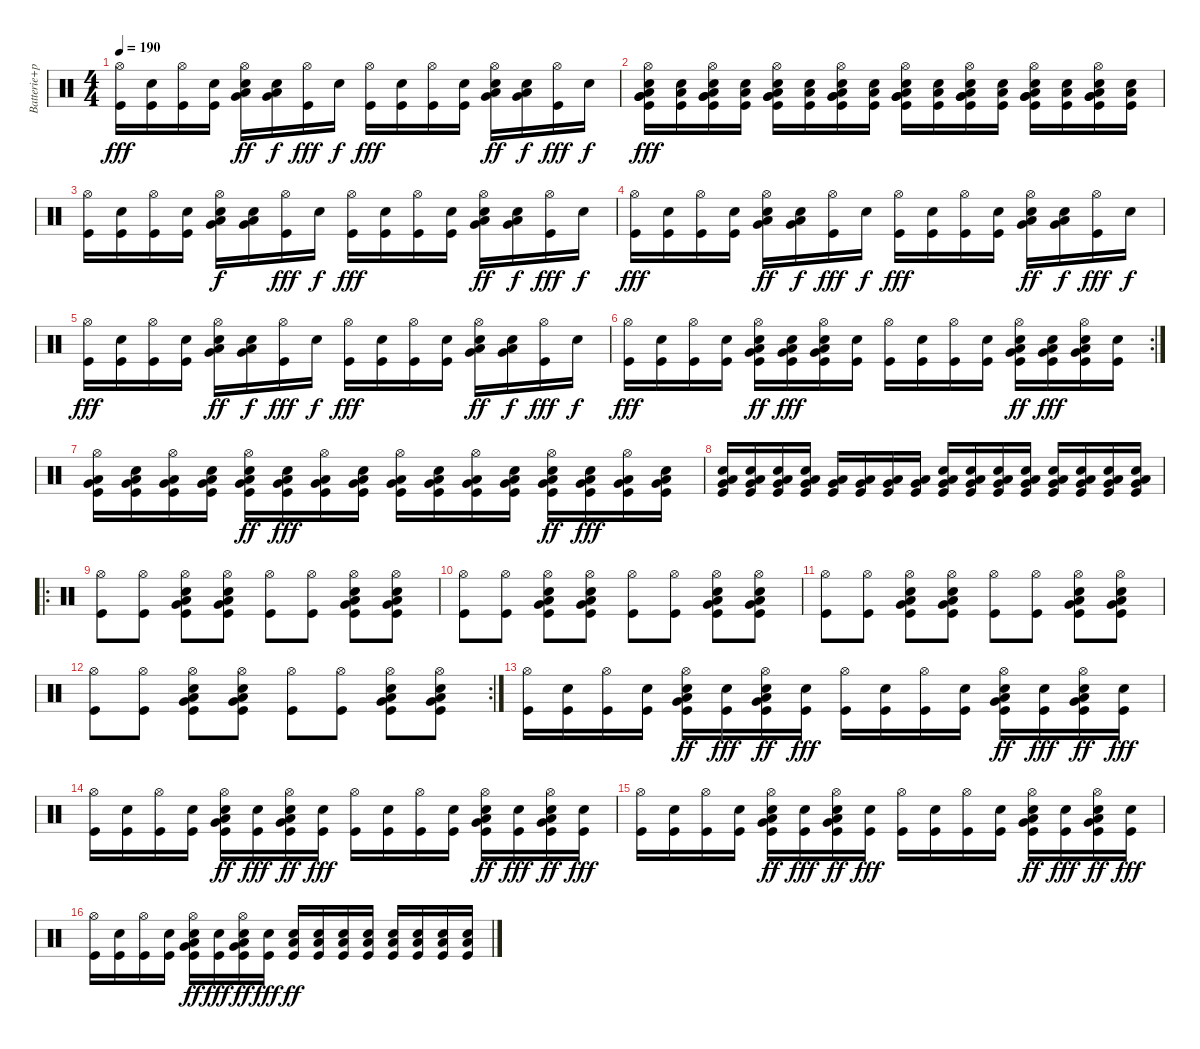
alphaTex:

\track ("Batterie+percussions" "Batterie+p") {instrument percussion}
\staff {score}
\articulation defaults
\ts (4 4)
\tempo 190
\clef neutral
\ks c
("Hi-Hat (open)" "Kick (hit)").16{dy fff} ("Snare (hit)" "Kick (hit)").16 ("Hi-Hat (open)" "Kick (hit)").16 ("Snare (hit)" "Kick (hit)").16 ("Hi-Hat (open)" "Electric Snare (hit)" "Low Floor Tom (hit)" "Very Low Tom (hit)").16{dy ff} ("Snare (hit)" "Low Floor Tom (hit)" "Very Low Tom (hit)").16{dy f} ("Hi-Hat (open)" "Kick (hit)").16{dy fff} "Snare (hit)".16{dy f} ("Hi-Hat (open)" "Kick (hit)").16{dy fff} ("Snare (hit)" "Kick (hit)").16 ("Hi-Hat (open)" "Kick (hit)").16 ("Snare (hit)" "Kick (hit)").16 ("Hi-Hat (open)" "Electric Snare (hit)" "Low Floor Tom (hit)" "Very Low Tom (hit)").16{dy ff} ("Snare (hit)" "Low Floor Tom (hit)" "Very Low Tom (hit)").16{dy f} ("Hi-Hat (open)" "Kick (hit)").16{dy fff} "Snare (hit)".16{dy f} |
("Hi-Hat (open)" "Kick (hit)" "Electric Snare (hit)" "Very Low Tom (hit)" "Low Floor Tom (hit)" "Very Low Tom (hit)").16{dy fff} ("Snare (hit)" "Kick (hit)" "Low Floor Tom (hit)").16 ("Hi-Hat (open)" "Kick (hit)" "Electric Snare (hit)" "Very Low Tom (hit)" "Low Floor Tom (hit)" "Very Low Tom (hit)").16 ("Snare (hit)" "Kick (hit)" "Low Floor Tom (hit)").16 ("Hi-Hat (open)" "Kick (hit)" "Electric Snare (hit)" "Very Low Tom (hit)" "Low Floor Tom (hit)" "Very Low Tom (hit)").16 ("Snare (hit)" "Kick (hit)" "Low Floor Tom (hit)").16 ("Hi-Hat (open)" "Kick (hit)" "Electric Snare (hit)" "Very Low Tom (hit)" "Low Floor Tom (hit)" "Very Low Tom (hit)").16 ("Snare (hit)" "Kick (hit)" "Low Floor Tom (hit)").16 ("Hi-Hat (open)" "Kick (hit)" "Electric Snare (hit)" "Very Low Tom (hit)" "Low Floor Tom (hit)" "Very Low Tom (hit)").16 ("Snare (hit)" "Kick (hit)" "Low Floor Tom (hit)").16 ("Hi-Hat (open)" "Kick (hit)" "Electric Snare (hit)" "Very Low Tom (hit)" "Low Floor Tom (hit)" "Very Low Tom (hit)").16 ("Snare (hit)" "Kick (hit)" "Low Floor Tom (hit)").16 ("Hi-Hat (open)" "Kick (hit)" "Electric Snare (hit)" "Very Low Tom (hit)" "Low Floor Tom (hit)" "Very Low Tom (hit)").16 ("Snare (hit)" "Kick (hit)" "Low Floor Tom (hit)").16 ("Hi-Hat (open)" "Kick (hit)" "Electric Snare (hit)" "Very Low Tom (hit)" "Low Floor Tom (hit)" "Very Low Tom (hit)").16 ("Snare (hit)" "Kick (hit)" "Low Floor Tom (hit)").16 |
("Hi-Hat (open)" "Kick (hit)").16 ("Snare (hit)" "Kick (hit)").16 ("Hi-Hat (open)" "Kick (hit)").16 ("Snare (hit)" "Kick (hit)").16 ("Hi-Hat (open)" "Electric Snare (hit)" "Low Floor Tom (hit)" "Very Low Tom (hit)").16{dy f} ("Snare (hit)" "Low Floor Tom (hit)" "Very Low Tom (hit)").16 ("Hi-Hat (open)" "Kick (hit)").16{dy fff} "Snare (hit)".16{dy f} ("Hi-Hat (open)" "Kick (hit)").16{dy fff} ("Snare (hit)" "Kick (hit)").16 ("Hi-Hat (open)" "Kick (hit)").16 ("Snare (hit)" "Kick (hit)").16 ("Hi-Hat (open)" "Electric Snare (hit)" "Low Floor Tom (hit)" "Very Low Tom (hit)").16{dy ff} ("Snare (hit)" "Low Floor Tom (hit)" "Very Low Tom (hit)").16{dy f} ("Hi-Hat (open)" "Kick (hit)").16{dy fff} "Snare (hit)".16{dy f} |
("Hi-Hat (open)" "Kick (hit)").16{dy fff} ("Snare (hit)" "Kick (hit)").16 ("Hi-Hat (open)" "Kick (hit)").16 ("Snare (hit)" "Kick (hit)").16 ("Hi-Hat (open)" "Electric Snare (hit)" "Low Floor Tom (hit)" "Very Low Tom (hit)").16{dy ff} ("Snare (hit)" "Low Floor Tom (hit)" "Very Low Tom (hit)").16{dy f} ("Hi-Hat (open)" "Kick (hit)").16{dy fff} "Snare (hit)".16{dy f} ("Hi-Hat (open)" "Kick (hit)").16{dy fff} ("Snare (hit)" "Kick (hit)").16 ("Hi-Hat (open)" "Kick (hit)").16 ("Snare (hit)" "Kick (hit)").16 ("Hi-Hat (open)" "Electric Snare (hit)" "Low Floor Tom (hit)" "Very Low Tom (hit)").16{dy ff} ("Snare (hit)" "Low Floor Tom (hit)" "Very Low Tom (hit)").16{dy f} ("Hi-Hat (open)" "Kick (hit)").16{dy fff} "Snare (hit)".16{dy f} |
("Hi-Hat (open)" "Kick (hit)").16{dy fff} ("Snare (hit)" "Kick (hit)").16 ("Hi-Hat (open)" "Kick (hit)").16 ("Snare (hit)" "Kick (hit)").16 ("Hi-Hat (open)" "Electric Snare (hit)" "Low Floor Tom (hit)" "Very Low Tom (hit)").16{dy ff} ("Snare (hit)" "Low Floor Tom (hit)" "Very Low Tom (hit)").16{dy f} ("Hi-Hat (open)" "Kick (hit)").16{dy fff} "Snare (hit)".16{dy f} ("Hi-Hat (open)" "Kick (hit)").16{dy fff} ("Snare (hit)" "Kick (hit)").16 ("Hi-Hat (open)" "Kick (hit)").16 ("Snare (hit)" "Kick (hit)").16 ("Hi-Hat (open)" "Electric Snare (hit)" "Low Floor Tom (hit)" "Very Low Tom (hit)").16{dy ff} ("Snare (hit)" "Low Floor Tom (hit)" "Very Low Tom (hit)").16{dy f} ("Hi-Hat (open)" "Kick (hit)").16{dy fff} "Snare (hit)".16{dy f} |
\rc 2
("Hi-Hat (open)" "Kick (hit)").16{dy fff} ("Snare (hit)" "Kick (hit)").16 ("Hi-Hat (open)" "Kick (hit)").16 ("Snare (hit)" "Kick (hit)").16 ("Hi-Hat (open)" "Kick (hit)" "Electric Snare (hit)" "Low Floor Tom (hit)" "Very Low Tom (hit)").16{dy ff} ("Snare (hit)" "Kick (hit)" "Low Floor Tom (hit)" "Very Low Tom (hit)").16{dy fff} ("Hi-Hat (open)" "Kick (hit)" "Electric Snare (hit)" "Low Floor Tom (hit)" "Very Low Tom (hit)").16 ("Snare (hit)" "Kick (hit)").16 ("Hi-Hat (open)" "Kick (hit)").16 ("Snare (hit)" "Kick (hit)").16 ("Hi-Hat (open)" "Kick (hit)").16 ("Snare (hit)" "Kick (hit)").16 ("Hi-Hat (open)" "Kick (hit)" "Electric Snare (hit)" "Low Floor Tom (hit)" "Very Low Tom (hit)").16{dy ff} ("Snare (hit)" "Kick (hit)" "Low Floor Tom (hit)" "Very Low Tom (hit)").16{dy fff} ("Hi-Hat (open)" "Kick (hit)" "Electric Snare (hit)" "Low Floor Tom (hit)" "Very Low Tom (hit)").16 ("Snare (hit)" "Kick (hit)").16 |
("Hi-Hat (open)" "Kick (hit)" "Low Floor Tom (hit)" "Very Low Tom (hit)").16 ("Snare (hit)" "Kick (hit)" "Low Floor Tom (hit)" "Very Low Tom (hit)").16 ("Hi-Hat (open)" "Kick (hit)" "Low Floor Tom (hit)" "Very Low Tom (hit)").16 ("Snare (hit)" "Kick (hit)" "Low Floor Tom (hit)" "Very Low Tom (hit)").16 ("Hi-Hat (open)" "Kick (hit)" "Electric Snare (hit)" "Low Floor Tom (hit)" "Very Low Tom (hit)").16{dy ff} ("Snare (hit)" "Kick (hit)" "Low Floor Tom (hit)" "Very Low Tom (hit)").16{dy fff} ("Hi-Hat (open)" "Kick (hit)" "Low Floor Tom (hit)" "Very Low Tom (hit)").16 ("Snare (hit)" "Kick (hit)" "Low Floor Tom (hit)" "Very Low Tom (hit)").16 ("Hi-Hat (open)" "Kick (hit)" "Low Floor Tom (hit)" "Very Low Tom (hit)").16 ("Snare (hit)" "Kick (hit)" "Low Floor Tom (hit)" "Very Low Tom (hit)").16 ("Hi-Hat (open)" "Kick (hit)" "Low Floor Tom (hit)" "Very Low Tom (hit)").16 ("Snare (hit)" "Kick (hit)" "Low Floor Tom (hit)" "Very Low Tom (hit)").16 ("Hi-Hat (open)" "Kick (hit)" "Electric Snare (hit)" "Low Floor Tom (hit)" "Very Low Tom (hit)").16{dy ff} ("Snare (hit)" "Kick (hit)" "Low Floor Tom (hit)" "Very Low Tom (hit)").16{dy fff} ("Hi-Hat (open)" "Kick (hit)" "Low Floor Tom (hit)" "Very Low Tom (hit)").16 ("Snare (hit)" "Kick (hit)" "Low Floor Tom (hit)" "Very Low Tom (hit)").16 |
("Electric Snare (hit)" "Kick (hit)" "Low Floor Tom (hit)" "Very Low Tom (hit)").16 ("Electric Snare (hit)" "Kick (hit)" "Low Floor Tom (hit)" "Very Low Tom (hit)").16 ("Electric Snare (hit)" "Kick (hit)" "Low Floor Tom (hit)" "Very Low Tom (hit)").16 ("Electric Snare (hit)" "Kick (hit)" "Low Floor Tom (hit)" "Very Low Tom (hit)").16 ("Kick (hit)" "Low Floor Tom (hit)" "Very Low Tom (hit)").16 ("Kick (hit)" "Low Floor Tom (hit)" "Very Low Tom (hit)").16 ("Kick (hit)" "Low Floor Tom (hit)" "Very Low Tom (hit)").16 ("Kick (hit)" "Low Floor Tom (hit)" "Very Low Tom (hit)").16 ("Electric Snare (hit)" "Kick (hit)" "Low Floor Tom (hit)" "Very Low Tom (hit)").16 ("Electric Snare (hit)" "Kick (hit)" "Low Floor Tom (hit)" "Very Low Tom (hit)").16 ("Electric Snare (hit)" "Kick (hit)" "Low Floor Tom (hit)" "Very Low Tom (hit)").16 ("Electric Snare (hit)" "Kick (hit)" "Low Floor Tom (hit)" "Very Low Tom (hit)").16 ("Electric Snare (hit)" "Kick (hit)" "Low Floor Tom (hit)" "Very Low Tom (hit)").16 ("Electric Snare (hit)" "Kick (hit)" "Low Floor Tom (hit)" "Very Low Tom (hit)").16 ("Electric Snare (hit)" "Kick (hit)" "Low Floor Tom (hit)" "Very Low Tom (hit)").16 ("Electric Snare (hit)" "Kick (hit)" "Low Floor Tom (hit)" "Very Low Tom (hit)").16 |
\ro
("Hi-Hat (open)" "Kick (hit)").8 ("Hi-Hat (open)" "Kick (hit)").8 ("Hi-Hat (open)" "Electric Snare (hit)" "Kick (hit)" "Low Floor Tom (hit)" "Very Low Tom (hit)").8 ("Hi-Hat (open)" "Electric Snare (hit)" "Kick (hit)" "Low Floor Tom (hit)" "Very Low Tom (hit)").8 ("Hi-Hat (open)" "Kick (hit)").8 ("Hi-Hat (open)" "Kick (hit)").8 ("Hi-Hat (open)" "Electric Snare (hit)" "Kick (hit)" "Low Floor Tom (hit)" "Very Low Tom (hit)").8 ("Hi-Hat (open)" "Electric Snare (hit)" "Kick (hit)" "Low Floor Tom (hit)" "Very Low Tom (hit)").8 |
("Hi-Hat (open)" "Kick (hit)").8 ("Hi-Hat (open)" "Kick (hit)").8 ("Hi-Hat (open)" "Electric Snare (hit)" "Kick (hit)" "Low Floor Tom (hit)" "Very Low Tom (hit)").8 ("Hi-Hat (open)" "Electric Snare (hit)" "Kick (hit)" "Low Floor Tom (hit)" "Very Low Tom (hit)").8 ("Hi-Hat (open)" "Kick (hit)").8 ("Hi-Hat (open)" "Kick (hit)").8 ("Hi-Hat (open)" "Electric Snare (hit)" "Kick (hit)" "Low Floor Tom (hit)" "Very Low Tom (hit)").8 ("Hi-Hat (open)" "Electric Snare (hit)" "Kick (hit)" "Low Floor Tom (hit)" "Very Low Tom (hit)").8 |
("Hi-Hat (open)" "Kick (hit)").8 ("Hi-Hat (open)" "Kick (hit)").8 ("Hi-Hat (open)" "Electric Snare (hit)" "Kick (hit)" "Low Floor Tom (hit)" "Very Low Tom (hit)").8 ("Hi-Hat (open)" "Electric Snare (hit)" "Kick (hit)" "Low Floor Tom (hit)" "Very Low Tom (hit)").8 ("Hi-Hat (open)" "Kick (hit)").8 ("Hi-Hat (open)" "Kick (hit)").8 ("Hi-Hat (open)" "Electric Snare (hit)" "Kick (hit)" "Low Floor Tom (hit)" "Very Low Tom (hit)").8 ("Hi-Hat (open)" "Electric Snare (hit)" "Kick (hit)" "Low Floor Tom (hit)" "Very Low Tom (hit)").8 |
\rc 2
("Hi-Hat (open)" "Kick (hit)").8 ("Hi-Hat (open)" "Kick (hit)").8 ("Hi-Hat (open)" "Electric Snare (hit)" "Kick (hit)" "Low Floor Tom (hit)" "Very Low Tom (hit)").8 ("Hi-Hat (open)" "Electric Snare (hit)" "Kick (hit)" "Low Floor Tom (hit)" "Very Low Tom (hit)").8 ("Hi-Hat (open)" "Kick (hit)").8 ("Hi-Hat (open)" "Kick (hit)").8 ("Hi-Hat (open)" "Electric Snare (hit)" "Kick (hit)" "Low Floor Tom (hit)" "Very Low Tom (hit)").8 ("Hi-Hat (open)" "Electric Snare (hit)" "Kick (hit)" "Low Floor Tom (hit)" "Very Low Tom (hit)").8 |
("Hi-Hat (open)" "Kick (hit)").16 ("Snare (hit)" "Kick (hit)").16 ("Hi-Hat (open)" "Kick (hit)").16 ("Snare (hit)" "Kick (hit)").16 ("Hi-Hat (open)" "Kick (hit)" "Electric Snare (hit)" "Low Floor Tom (hit)" "Very Low Tom (hit)").16{dy ff} ("Snare (hit)" "Kick (hit)").16{dy fff} ("Hi-Hat (open)" "Kick (hit)" "Electric Snare (hit)" "Low Floor Tom (hit)" "Very Low Tom (hit)").16{dy ff} ("Snare (hit)" "Kick (hit)").16{dy fff} ("Hi-Hat (open)" "Kick (hit)").16 ("Snare (hit)" "Kick (hit)").16 ("Hi-Hat (open)" "Kick (hit)").16 ("Snare (hit)" "Kick (hit)").16 ("Hi-Hat (open)" "Kick (hit)" "Electric Snare (hit)" "Low Floor Tom (hit)" "Very Low Tom (hit)").16{dy ff} ("Snare (hit)" "Kick (hit)").16{dy fff} ("Hi-Hat (open)" "Kick (hit)" "Electric Snare (hit)" "Low Floor Tom (hit)" "Very Low Tom (hit)").16{dy ff} ("Snare (hit)" "Kick (hit)").16{dy fff} |
("Hi-Hat (open)" "Kick (hit)").16 ("Snare (hit)" "Kick (hit)").16 ("Hi-Hat (open)" "Kick (hit)").16 ("Snare (hit)" "Kick (hit)").16 ("Hi-Hat (open)" "Kick (hit)" "Electric Snare (hit)" "Low Floor Tom (hit)" "Very Low Tom (hit)").16{dy ff} ("Snare (hit)" "Kick (hit)").16{dy fff} ("Hi-Hat (open)" "Kick (hit)" "Electric Snare (hit)" "Low Floor Tom (hit)" "Very Low Tom (hit)").16{dy ff} ("Snare (hit)" "Kick (hit)").16{dy fff} ("Hi-Hat (open)" "Kick (hit)").16 ("Snare (hit)" "Kick (hit)").16 ("Hi-Hat (open)" "Kick (hit)").16 ("Snare (hit)" "Kick (hit)").16 ("Hi-Hat (open)" "Kick (hit)" "Electric Snare (hit)" "Low Floor Tom (hit)" "Very Low Tom (hit)").16{dy ff} ("Snare (hit)" "Kick (hit)").16{dy fff} ("Hi-Hat (open)" "Kick (hit)" "Electric Snare (hit)" "Low Floor Tom (hit)" "Very Low Tom (hit)").16{dy ff} ("Snare (hit)" "Kick (hit)").16{dy fff} |
("Hi-Hat (open)" "Kick (hit)").16 ("Snare (hit)" "Kick (hit)").16 ("Hi-Hat (open)" "Kick (hit)").16 ("Snare (hit)" "Kick (hit)").16 ("Hi-Hat (open)" "Kick (hit)" "Electric Snare (hit)" "Low Floor Tom (hit)" "Very Low Tom (hit)").16{dy ff} ("Snare (hit)" "Kick (hit)").16{dy fff} ("Hi-Hat (open)" "Kick (hit)" "Electric Snare (hit)" "Low Floor Tom (hit)" "Very Low Tom (hit)").16{dy ff} ("Snare (hit)" "Kick (hit)").16{dy fff} ("Hi-Hat (open)" "Kick (hit)").16 ("Snare (hit)" "Kick (hit)").16 ("Hi-Hat (open)" "Kick (hit)").16 ("Snare (hit)" "Kick (hit)").16 ("Hi-Hat (open)" "Kick (hit)" "Electric Snare (hit)" "Low Floor Tom (hit)" "Very Low Tom (hit)").16{dy ff} ("Snare (hit)" "Kick (hit)").16{dy fff} ("Hi-Hat (open)" "Kick (hit)" "Electric Snare (hit)" "Low Floor Tom (hit)" "Very Low Tom (hit)").16{dy ff} ("Snare (hit)" "Kick (hit)").16{dy fff} |
("Hi-Hat (open)" "Kick (hit)").16 ("Snare (hit)" "Kick (hit)").16 ("Hi-Hat (open)" "Kick (hit)").16 ("Snare (hit)" "Kick (hit)").16 ("Hi-Hat (open)" "Kick (hit)" "Electric Snare (hit)" "Low Floor Tom (hit)" "Very Low Tom (hit)").16{dy ff} ("Snare (hit)" "Kick (hit)").16{dy fff} ("Hi-Hat (open)" "Kick (hit)" "Electric Snare (hit)" "Low Floor Tom (hit)" "Very Low Tom (hit)").16{dy ff} ("Snare (hit)" "Kick (hit)").16{dy fff} ("Kick (hit)" "Electric Snare (hit)" "Low Floor Tom (hit)").16{dy ff} ("Kick (hit)" "Electric Snare (hit)" "Low Floor Tom (hit)").16 ("Kick (hit)" "Electric Snare (hit)" "Low Floor Tom (hit)").16 ("Kick (hit)" "Electric Snare (hit)" "Low Floor Tom (hit)").16 ("Kick (hit)" "Electric Snare (hit)" "Low Floor Tom (hit)").16 ("Kick (hit)" "Electric Snare (hit)" "Low Floor Tom (hit)").16 ("Kick (hit)" "Electric Snare (hit)" "Low Floor Tom (hit)").16 ("Kick (hit)" "Electric Snare (hit)" "Low Floor Tom (hit)").16
